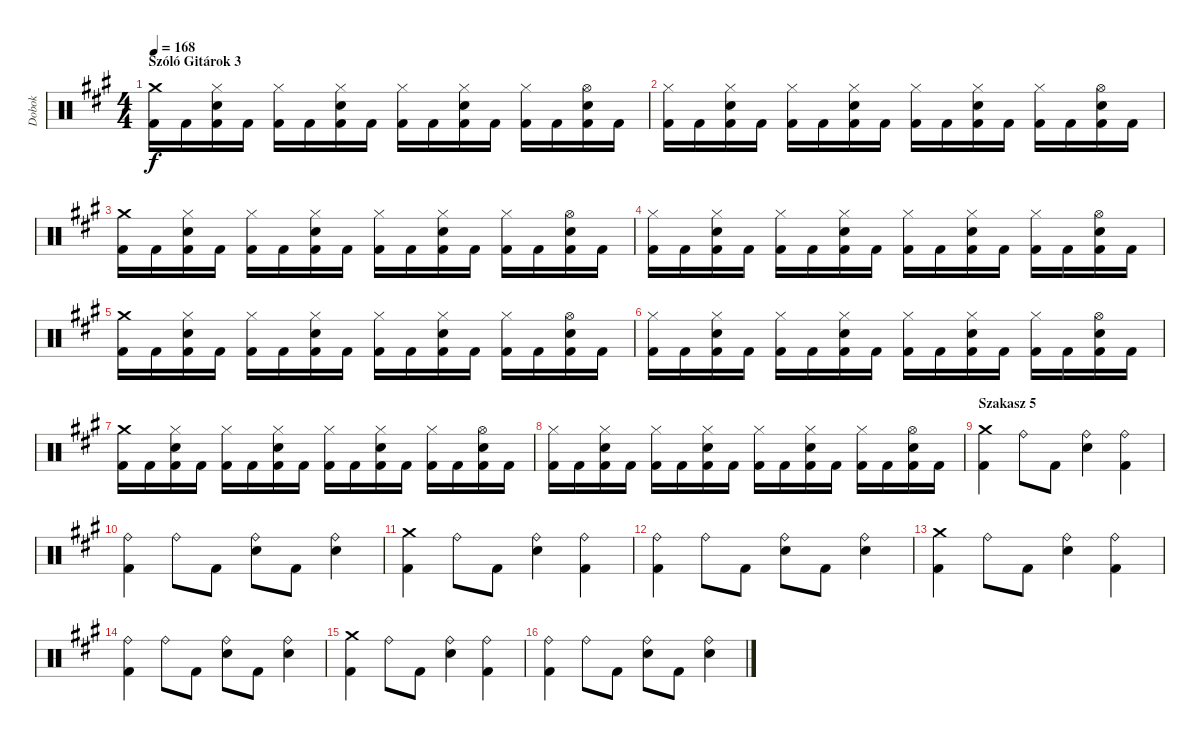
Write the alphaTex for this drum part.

\track ("Dobok" "Dobok") {instrument percussion}
\staff {score}
\articulation defaults
\ts (4 4)
\section ("" "Szóló Gitárok 3")
\tempo 168
\clef neutral
\ks f#minor
("Crash medium (hit)" "Kick (hit) 2").16{dy f} "Kick (hit) 2".16 ("Hi-Hat (closed)" "Snare (hit) 2" "Kick (hit) 2").16 "Kick (hit) 2".16 ("Hi-Hat (closed)" "Kick (hit) 2").16 "Kick (hit) 2".16 ("Hi-Hat (closed)" "Snare (hit) 2" "Kick (hit) 2").16 "Kick (hit) 2".16 ("Hi-Hat (closed)" "Kick (hit) 2").16 "Kick (hit) 2".16 ("Hi-Hat (closed)" "Snare (hit) 2" "Kick (hit) 2").16 "Kick (hit) 2".16 ("Hi-Hat (closed)" "Kick (hit) 2").16 "Kick (hit) 2".16 ("Hi-Hat (open)" "Snare (hit) 2" "Kick (hit) 2").16 "Kick (hit) 2".16 |
("Hi-Hat (closed)" "Kick (hit) 2").16 "Kick (hit) 2".16 ("Hi-Hat (closed)" "Snare (hit) 2" "Kick (hit) 2").16 "Kick (hit) 2".16 ("Hi-Hat (closed)" "Kick (hit) 2").16 "Kick (hit) 2".16 ("Hi-Hat (closed)" "Snare (hit) 2" "Kick (hit) 2").16 "Kick (hit) 2".16 ("Hi-Hat (closed)" "Kick (hit) 2").16 "Kick (hit) 2".16 ("Hi-Hat (closed)" "Snare (hit) 2" "Kick (hit) 2").16 "Kick (hit) 2".16 ("Hi-Hat (closed)" "Kick (hit) 2").16 "Kick (hit) 2".16 ("Hi-Hat (open)" "Snare (hit) 2" "Kick (hit) 2").16 "Kick (hit) 2".16 |
("Crash medium (hit)" "Kick (hit) 2").16 "Kick (hit) 2".16 ("Hi-Hat (closed)" "Snare (hit) 2" "Kick (hit) 2").16 "Kick (hit) 2".16 ("Hi-Hat (closed)" "Kick (hit) 2").16 "Kick (hit) 2".16 ("Hi-Hat (closed)" "Snare (hit) 2" "Kick (hit) 2").16 "Kick (hit) 2".16 ("Hi-Hat (closed)" "Kick (hit) 2").16 "Kick (hit) 2".16 ("Hi-Hat (closed)" "Snare (hit) 2" "Kick (hit) 2").16 "Kick (hit) 2".16 ("Hi-Hat (closed)" "Kick (hit) 2").16 "Kick (hit) 2".16 ("Hi-Hat (open)" "Snare (hit) 2" "Kick (hit) 2").16 "Kick (hit) 2".16 |
("Hi-Hat (closed)" "Kick (hit) 2").16 "Kick (hit) 2".16 ("Hi-Hat (closed)" "Snare (hit) 2" "Kick (hit) 2").16 "Kick (hit) 2".16 ("Hi-Hat (closed)" "Kick (hit) 2").16 "Kick (hit) 2".16 ("Hi-Hat (closed)" "Snare (hit) 2" "Kick (hit) 2").16 "Kick (hit) 2".16 ("Hi-Hat (closed)" "Kick (hit) 2").16 "Kick (hit) 2".16 ("Hi-Hat (closed)" "Snare (hit) 2" "Kick (hit) 2").16 "Kick (hit) 2".16 ("Hi-Hat (closed)" "Kick (hit) 2").16 "Kick (hit) 2".16 ("Hi-Hat (open)" "Snare (hit) 2" "Kick (hit) 2").16 "Kick (hit) 2".16 |
("Crash medium (hit)" "Kick (hit) 2").16 "Kick (hit) 2".16 ("Hi-Hat (closed)" "Snare (hit) 2" "Kick (hit) 2").16 "Kick (hit) 2".16 ("Hi-Hat (closed)" "Kick (hit) 2").16 "Kick (hit) 2".16 ("Hi-Hat (closed)" "Snare (hit) 2" "Kick (hit) 2").16 "Kick (hit) 2".16 ("Hi-Hat (closed)" "Kick (hit) 2").16 "Kick (hit) 2".16 ("Hi-Hat (closed)" "Snare (hit) 2" "Kick (hit) 2").16 "Kick (hit) 2".16 ("Hi-Hat (closed)" "Kick (hit) 2").16 "Kick (hit) 2".16 ("Hi-Hat (open)" "Snare (hit) 2" "Kick (hit) 2").16 "Kick (hit) 2".16 |
("Hi-Hat (closed)" "Kick (hit) 2").16 "Kick (hit) 2".16 ("Hi-Hat (closed)" "Snare (hit) 2" "Kick (hit) 2").16 "Kick (hit) 2".16 ("Hi-Hat (closed)" "Kick (hit) 2").16 "Kick (hit) 2".16 ("Hi-Hat (closed)" "Snare (hit) 2" "Kick (hit) 2").16 "Kick (hit) 2".16 ("Hi-Hat (closed)" "Kick (hit) 2").16 "Kick (hit) 2".16 ("Hi-Hat (closed)" "Snare (hit) 2" "Kick (hit) 2").16 "Kick (hit) 2".16 ("Hi-Hat (closed)" "Kick (hit) 2").16 "Kick (hit) 2".16 ("Hi-Hat (open)" "Snare (hit) 2" "Kick (hit) 2").16 "Kick (hit) 2".16 |
("Crash medium (hit)" "Kick (hit) 2").16 "Kick (hit) 2".16 ("Hi-Hat (closed)" "Snare (hit) 2" "Kick (hit) 2").16 "Kick (hit) 2".16 ("Hi-Hat (closed)" "Kick (hit) 2").16 "Kick (hit) 2".16 ("Hi-Hat (closed)" "Snare (hit) 2" "Kick (hit) 2").16 "Kick (hit) 2".16 ("Hi-Hat (closed)" "Kick (hit) 2").16 "Kick (hit) 2".16 ("Hi-Hat (closed)" "Snare (hit) 2" "Kick (hit) 2").16 "Kick (hit) 2".16 ("Hi-Hat (closed)" "Kick (hit) 2").16 "Kick (hit) 2".16 ("Hi-Hat (open)" "Snare (hit) 2" "Kick (hit) 2").16 "Kick (hit) 2".16 |
("Hi-Hat (closed)" "Kick (hit) 2").16 "Kick (hit) 2".16 ("Hi-Hat (closed)" "Snare (hit) 2" "Kick (hit) 2").16 "Kick (hit) 2".16 ("Hi-Hat (closed)" "Kick (hit) 2").16 "Kick (hit) 2".16 ("Hi-Hat (closed)" "Snare (hit) 2" "Kick (hit) 2").16 "Kick (hit) 2".16 ("Hi-Hat (closed)" "Kick (hit) 2").16 "Kick (hit) 2".16 ("Hi-Hat (closed)" "Snare (hit) 2" "Kick (hit) 2").16 "Kick (hit) 2".16 ("Hi-Hat (closed)" "Kick (hit) 2").16 "Kick (hit) 2".16 ("Hi-Hat (open)" "Snare (hit) 2" "Kick (hit) 2").16 "Kick (hit) 2".16 |
\section ("" "Szakasz 5")
("Crash medium (hit)" "Kick (hit) 2").4 "Ride (bell)".8 "Kick (hit) 2".8 ("Ride (bell)" "Snare (hit) 2").4 ("Ride (bell)" "Kick (hit) 2").4 |
("Ride (bell)" "Kick (hit) 2").4 "Ride (bell)".8 "Kick (hit) 2".8 ("Ride (bell)" "Snare (hit) 2").8 "Kick (hit) 2".8 ("Ride (bell)" "Snare (hit) 2").4 |
("Crash medium (hit)" "Kick (hit) 2").4 "Ride (bell)".8 "Kick (hit) 2".8 ("Ride (bell)" "Snare (hit) 2").4 ("Ride (bell)" "Kick (hit) 2").4 |
("Ride (bell)" "Kick (hit) 2").4 "Ride (bell)".8 "Kick (hit) 2".8 ("Ride (bell)" "Snare (hit) 2").8 "Kick (hit) 2".8 ("Ride (bell)" "Snare (hit) 2").4 |
("Crash medium (hit)" "Kick (hit) 2").4 "Ride (bell)".8 "Kick (hit) 2".8 ("Ride (bell)" "Snare (hit) 2").4 ("Ride (bell)" "Kick (hit) 2").4 |
("Ride (bell)" "Kick (hit) 2").4 "Ride (bell)".8 "Kick (hit) 2".8 ("Ride (bell)" "Snare (hit) 2").8 "Kick (hit) 2".8 ("Ride (bell)" "Snare (hit) 2").4 |
("Crash medium (hit)" "Kick (hit) 2").4 "Ride (bell)".8 "Kick (hit) 2".8 ("Ride (bell)" "Snare (hit) 2").4 ("Ride (bell)" "Kick (hit) 2").4 |
("Ride (bell)" "Kick (hit) 2").4 "Ride (bell)".8 "Kick (hit) 2".8 ("Ride (bell)" "Snare (hit) 2").8 "Kick (hit) 2".8 ("Ride (bell)" "Snare (hit) 2").4
